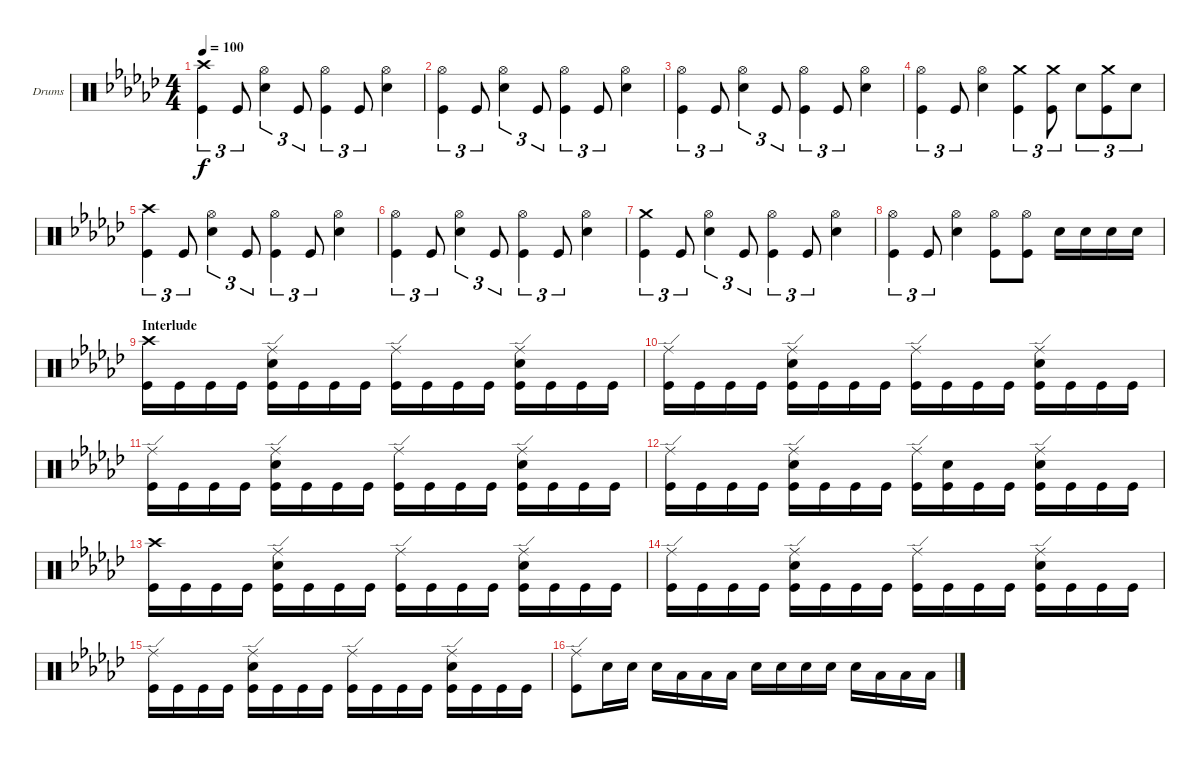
\defaultSystemsLayout 4
\bracketExtendMode groupsimilarinstruments
\firstSystemTrackNameOrientation horizontal
\otherSystemsTrackNameOrientation horizontal
\track ("Drumkit" "Drums") {instrument percussion}
\staff {score}
\articulation defaults
\ts (4 4)
\tempo 100
\clef neutral
\scale
0.333333
\ks ebminor
("Kick (hit)" "Crash high (hit)").4{tu (3 2) dy f} "Kick (hit)".8{tu (3 2)} ("Snare (hit) 2" "Hi-Hat (open)").4{tu (3 2)} "Kick (hit)".8{tu (3 2)} ("Kick (hit)" "Hi-Hat (open)").4{tu (3 2)} "Kick (hit)".8{tu (3 2)} ("Snare (hit) 2" "Hi-Hat (open)").4 |
\scale
0.333333 ("Kick (hit)" "Hi-Hat (open)").4{tu (3 2)} "Kick (hit)".8{tu (3 2)} ("Snare (hit) 2" "Hi-Hat (open)").4{tu (3 2)} "Kick (hit)".8{tu (3 2)} ("Kick (hit)" "Hi-Hat (open)").4{tu (3 2)} "Kick (hit)".8{tu (3 2)} ("Snare (hit) 2" "Hi-Hat (open)").4 |
\scale
0.333333 ("Kick (hit)" "Hi-Hat (open)").4{tu (3 2)} "Kick (hit)".8{tu (3 2)} ("Snare (hit) 2" "Hi-Hat (open)").4{tu (3 2)} "Kick (hit)".8{tu (3 2)} ("Kick (hit)" "Hi-Hat (open)").4{tu (3 2)} "Kick (hit)".8{tu (3 2)} ("Snare (hit) 2" "Hi-Hat (open)").4 |
\scale
0.333333 ("Kick (hit)" "Hi-Hat (open)").4{tu (3 2)} "Kick (hit)".8{tu (3 2)} ("Snare (hit) 2" "Hi-Hat (open)").4 ("Crash medium (hit)" "Kick (hit)").4{tu (3 2)} ("Crash medium (hit)" "Kick (hit)").8{tu (3 2)} "Snare (hit) 2".8{tu (3 2)} ("Crash medium (hit)" "Kick (hit)").8{tu (3 2)} "Snare (hit) 2".8{tu (3 2)} |
\scale
0.333333 ("Kick (hit)" "Crash high (hit)").4{tu (3 2)} "Kick (hit)".8{tu (3 2)} ("Snare (hit) 2" "Hi-Hat (open)").4{tu (3 2)} "Kick (hit)".8{tu (3 2)} ("Kick (hit)" "Hi-Hat (open)").4{tu (3 2)} "Kick (hit)".8{tu (3 2)} ("Snare (hit) 2" "Hi-Hat (open)").4 |
\scale
0.333333 ("Kick (hit)" "Hi-Hat (open)").4{tu (3 2)} "Kick (hit)".8{tu (3 2)} ("Snare (hit) 2" "Hi-Hat (open)").4{tu (3 2)} "Kick (hit)".8{tu (3 2)} ("Kick (hit)" "Hi-Hat (open)").4{tu (3 2)} "Kick (hit)".8{tu (3 2)} ("Snare (hit) 2" "Hi-Hat (open)").4 |
\scale
0.333333 ("Kick (hit)" "Crash medium (hit)").4{tu (3 2)} "Kick (hit)".8{tu (3 2)} ("Snare (hit) 2" "Hi-Hat (open)").4{tu (3 2)} "Kick (hit)".8{tu (3 2)} ("Kick (hit)" "Hi-Hat (open)").4{tu (3 2)} "Kick (hit)".8{tu (3 2)} ("Snare (hit) 2" "Hi-Hat (open)").4 |
\scale
0.333333 ("Kick (hit)" "Hi-Hat (open)").4{tu (3 2)} "Kick (hit)".8{tu (3 2)} ("Snare (hit) 2" "Hi-Hat (open)").4 ("Kick (hit)" "Hi-Hat (open)").8 ("Kick (hit)" "Hi-Hat (open)").8 "Snare (hit) 2".16 "Snare (hit) 2".16 "Snare (hit) 2".16 "Snare (hit) 2".16 |
\section ("" "Interlude")
\scale
0.333333 ("Kick (hit)" "Crash high (hit)").16 "Kick (hit)".16 "Kick (hit)".16 "Kick (hit)".16 ("Kick (hit)" "Snare (hit) 2" "Ride (edge)").16 "Kick (hit)".16 "Kick (hit)".16 "Kick (hit)".16 ("Kick (hit)" "Ride (edge)").16 "Kick (hit)".16 "Kick (hit)".16 "Kick (hit)".16 ("Kick (hit)" "Snare (hit) 2" "Ride (edge)").16 "Kick (hit)".16 "Kick (hit)".16 "Kick (hit)".16 |
\scale
0.333333 ("Kick (hit)" "Ride (edge)").16 "Kick (hit)".16 "Kick (hit)".16 "Kick (hit)".16 ("Kick (hit)" "Snare (hit) 2" "Ride (edge)").16 "Kick (hit)".16 "Kick (hit)".16 "Kick (hit)".16 ("Kick (hit)" "Ride (edge)").16 "Kick (hit)".16 "Kick (hit)".16 "Kick (hit)".16 ("Kick (hit)" "Snare (hit) 2" "Ride (edge)").16 "Kick (hit)".16 "Kick (hit)".16 "Kick (hit)".16 |
\scale
0.333333 ("Kick (hit)" "Ride (edge)").16 "Kick (hit)".16 "Kick (hit)".16 "Kick (hit)".16 ("Kick (hit)" "Snare (hit) 2" "Ride (edge)").16 "Kick (hit)".16 "Kick (hit)".16 "Kick (hit)".16 ("Kick (hit)" "Ride (edge)").16 "Kick (hit)".16 "Kick (hit)".16 "Kick (hit)".16 ("Kick (hit)" "Snare (hit) 2" "Ride (edge)").16 "Kick (hit)".16 "Kick (hit)".16 "Kick (hit)".16 |
\scale
0.333333 ("Kick (hit)" "Ride (edge)").16 "Kick (hit)".16 "Kick (hit)".16 "Kick (hit)".16 ("Kick (hit)" "Snare (hit) 2" "Ride (edge)").16 "Kick (hit)".16 "Kick (hit)".16 "Kick (hit)".16 ("Kick (hit)" "Ride (edge)").16 ("Kick (hit)" "Snare (hit) 2").16 "Kick (hit)".16 "Kick (hit)".16 ("Kick (hit)" "Snare (hit) 2" "Ride (edge)").16 "Kick (hit)".16 "Kick (hit)".16 "Kick (hit)".16 |
\scale
0.333333 ("Kick (hit)" "Crash high (hit)").16 "Kick (hit)".16 "Kick (hit)".16 "Kick (hit)".16 ("Kick (hit)" "Snare (hit) 2" "Ride (edge)").16 "Kick (hit)".16 "Kick (hit)".16 "Kick (hit)".16 ("Kick (hit)" "Ride (edge)").16 "Kick (hit)".16 "Kick (hit)".16 "Kick (hit)".16 ("Kick (hit)" "Snare (hit) 2" "Ride (edge)").16 "Kick (hit)".16 "Kick (hit)".16 "Kick (hit)".16 |
\scale
0.333333 ("Kick (hit)" "Ride (edge)").16 "Kick (hit)".16 "Kick (hit)".16 "Kick (hit)".16 ("Kick (hit)" "Snare (hit) 2" "Ride (edge)").16 "Kick (hit)".16 "Kick (hit)".16 "Kick (hit)".16 ("Kick (hit)" "Ride (edge)").16 "Kick (hit)".16 "Kick (hit)".16 "Kick (hit)".16 ("Kick (hit)" "Snare (hit) 2" "Ride (edge)").16 "Kick (hit)".16 "Kick (hit)".16 "Kick (hit)".16 |
\scale
0.333333 ("Kick (hit)" "Ride (edge)").16 "Kick (hit)".16 "Kick (hit)".16 "Kick (hit)".16 ("Kick (hit)" "Snare (hit) 2" "Ride (edge)").16 "Kick (hit)".16 "Kick (hit)".16 "Kick (hit)".16 ("Kick (hit)" "Ride (edge)").16 "Kick (hit)".16 "Kick (hit)".16 "Kick (hit)".16 ("Kick (hit)" "Snare (hit) 2" "Ride (edge)").16 "Kick (hit)".16 "Kick (hit)".16 "Kick (hit)".16 |
\scale
0.333333 ("Kick (hit)" "Ride (edge)").8 "Snare (hit) 2".16 "Snare (hit) 2".16 "Snare (hit) 2".16 "Low Tom (hit)".16 "Low Tom (hit)".16 "Low Tom (hit)".16 "Snare (hit) 2".16 "Snare (hit) 2".16 "Snare (hit) 2".16 "Snare (hit) 2".16 "Snare (hit) 2".16 "Low Tom (hit)".16 "Low Tom (hit)".16 "Low Tom (hit)".16
